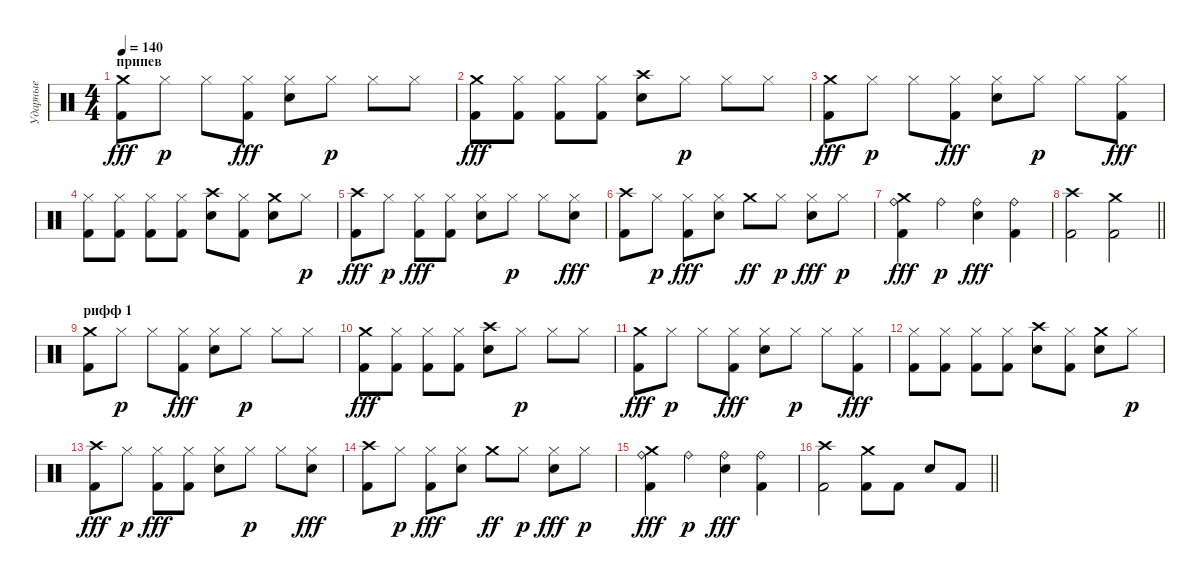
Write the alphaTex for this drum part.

\track ("Ударные" "Ударные") {instrument percussion}
\staff {score}
\articulation defaults
\ts (4 4)
\section ("" "припев")
\tempo 140
\clef neutral
\ks c
("Crash medium (hit)" "Kick (hit) 2").8{dy fff} "Hi-Hat (closed)".8{dy p} "Hi-Hat (closed)".8 ("Hi-Hat (closed)" "Kick (hit) 2").8{dy fff} ("Hi-Hat (closed)" "Snare (hit) 2").8 "Hi-Hat (closed)".8{dy p} "Hi-Hat (closed)".8 "Hi-Hat (closed)".8 |
("Crash medium (hit)" "Kick (hit) 2").8{dy fff} ("Hi-Hat (closed)" "Kick (hit) 2").8 ("Hi-Hat (closed)" "Kick (hit) 2").8 ("Hi-Hat (closed)" "Kick (hit) 2").8 ("Crash high (hit)" "Snare (hit) 2").8 "Hi-Hat (closed)".8{dy p} "Hi-Hat (closed)".8 "Hi-Hat (closed)".8 |
("Crash medium (hit)" "Kick (hit) 2").8{dy fff} "Hi-Hat (closed)".8{dy p} "Hi-Hat (closed)".8 ("Hi-Hat (closed)" "Kick (hit) 2").8{dy fff} ("Hi-Hat (closed)" "Snare (hit) 2").8 "Hi-Hat (closed)".8{dy p} "Hi-Hat (closed)".8 ("Hi-Hat (closed)" "Kick (hit) 2").8{dy fff} |
("Hi-Hat (closed)" "Kick (hit) 2").8 ("Hi-Hat (closed)" "Kick (hit) 2").8 ("Hi-Hat (closed)" "Kick (hit) 2").8 ("Hi-Hat (closed)" "Kick (hit) 2").8 ("Crash high (hit)" "Snare (hit) 2").8 ("Hi-Hat (closed)" "Kick (hit) 2").8 ("Crash medium (hit)" "Snare (hit) 2").8 "Hi-Hat (closed)".8{dy p} |
("Crash high (hit)" "Kick (hit) 2").8{dy fff} "Hi-Hat (closed)".8{dy p} ("Hi-Hat (closed)" "Kick (hit) 2").8{dy fff} ("Hi-Hat (closed)" "Kick (hit) 2").8 ("Hi-Hat (closed)" "Snare (hit) 2").8 "Hi-Hat (closed)".8{dy p} "Hi-Hat (closed)".8 ("Hi-Hat (closed)" "Snare (hit) 2").8{dy fff} |
("Crash high (hit)" "Kick (hit) 2").8 "Hi-Hat (closed)".8{dy p} ("Hi-Hat (closed)" "Kick (hit) 2").8{dy fff} ("Hi-Hat (closed)" "Snare (hit) 2").8 "Crash medium (hit)".8{dy ff} "Hi-Hat (closed)".8{dy p} ("Hi-Hat (closed)" "Snare (hit) 2").8{dy fff} "Hi-Hat (closed)".8{dy p} |
("Crash medium (hit)" "Ride (bell)" "Kick (hit) 2").4{dy fff} "Ride (bell)".4{dy p} ("Ride (bell)" "Snare (hit) 2").4{dy fff} ("Ride (bell)" "Kick (hit) 2").4 |
\barLineRight lightlight
("Crash high (hit)" "Kick (hit) 2").2 ("Crash medium (hit)" "Kick (hit) 2").2 |
\section ("" "рифф 1")
("Crash medium (hit)" "Kick (hit) 2").8 "Hi-Hat (closed)".8{dy p} "Hi-Hat (closed)".8 ("Hi-Hat (closed)" "Kick (hit) 2").8{dy fff} ("Hi-Hat (closed)" "Snare (hit) 2").8 "Hi-Hat (closed)".8{dy p} "Hi-Hat (closed)".8 "Hi-Hat (closed)".8 |
("Crash medium (hit)" "Kick (hit) 2").8{dy fff} ("Hi-Hat (closed)" "Kick (hit) 2").8 ("Hi-Hat (closed)" "Kick (hit) 2").8 ("Hi-Hat (closed)" "Kick (hit) 2").8 ("Crash high (hit)" "Snare (hit) 2").8 "Hi-Hat (closed)".8{dy p} "Hi-Hat (closed)".8 "Hi-Hat (closed)".8 |
("Crash medium (hit)" "Kick (hit) 2").8{dy fff} "Hi-Hat (closed)".8{dy p} "Hi-Hat (closed)".8 ("Hi-Hat (closed)" "Kick (hit) 2").8{dy fff} ("Hi-Hat (closed)" "Snare (hit) 2").8 "Hi-Hat (closed)".8{dy p} "Hi-Hat (closed)".8 ("Hi-Hat (closed)" "Kick (hit) 2").8{dy fff} |
("Hi-Hat (closed)" "Kick (hit) 2").8 ("Hi-Hat (closed)" "Kick (hit) 2").8 ("Hi-Hat (closed)" "Kick (hit) 2").8 ("Hi-Hat (closed)" "Kick (hit) 2").8 ("Crash high (hit)" "Snare (hit) 2").8 ("Hi-Hat (closed)" "Kick (hit) 2").8 ("Crash medium (hit)" "Snare (hit) 2").8 "Hi-Hat (closed)".8{dy p} |
("Crash high (hit)" "Kick (hit) 2").8{dy fff} "Hi-Hat (closed)".8{dy p} ("Hi-Hat (closed)" "Kick (hit) 2").8{dy fff} ("Hi-Hat (closed)" "Kick (hit) 2").8 ("Hi-Hat (closed)" "Snare (hit) 2").8 "Hi-Hat (closed)".8{dy p} "Hi-Hat (closed)".8 ("Hi-Hat (closed)" "Snare (hit) 2").8{dy fff} |
("Crash high (hit)" "Kick (hit) 2").8 "Hi-Hat (closed)".8{dy p} ("Hi-Hat (closed)" "Kick (hit) 2").8{dy fff} ("Hi-Hat (closed)" "Snare (hit) 2").8 "Crash medium (hit)".8{dy ff} "Hi-Hat (closed)".8{dy p} ("Hi-Hat (closed)" "Snare (hit) 2").8{dy fff} "Hi-Hat (closed)".8{dy p} |
("Crash medium (hit)" "Ride (bell)" "Kick (hit) 2").4{dy fff} "Ride (bell)".4{dy p} ("Ride (bell)" "Snare (hit) 2").4{dy fff} ("Ride (bell)" "Kick (hit) 2").4 |
\barLineRight lightlight
("Crash high (hit)" "Kick (hit) 2").2 ("Crash medium (hit)" "Kick (hit) 2").8 "Kick (hit) 2".8 "Snare (hit) 2".8 "Kick (hit) 2".8
